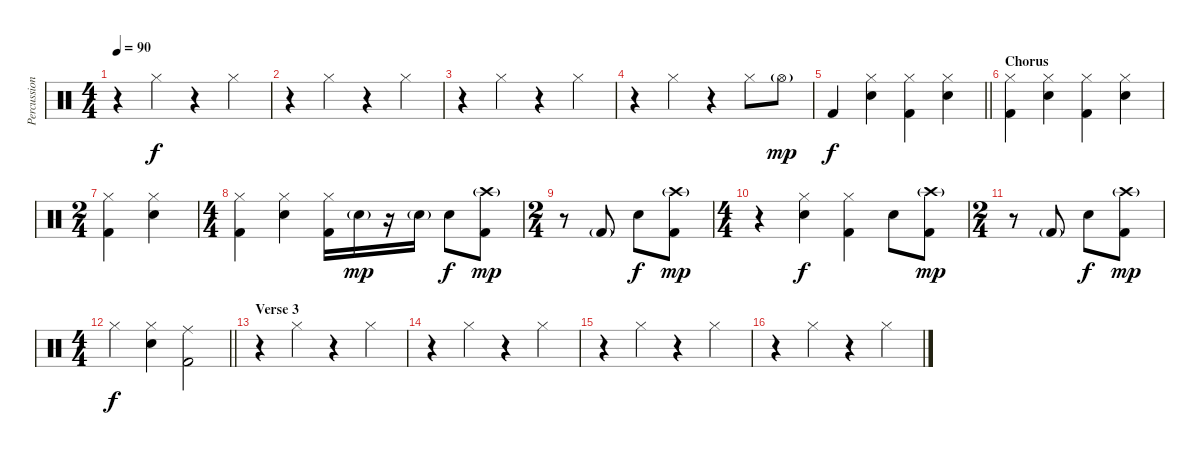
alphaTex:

\track ("Percussion" "Percussion") {instrument percussion}
\staff {score}
\articulation defaults
\ts (4 4)
\tempo 90
\clef neutral
\ks c
r.4{dy f} "Hi-Hat (closed)".4 r.4 "Hi-Hat (closed)".4 |
r.4 "Hi-Hat (closed)".4 r.4 "Hi-Hat (closed)".4 |
r.4 "Hi-Hat (closed)".4 r.4 "Hi-Hat (closed)".4 |
r.4 "Hi-Hat (closed)".4 r.4 "Hi-Hat (closed)".8 "Hi-Hat (open)"{g}.8{dy mp} |
\barLineRight lightlight "Kick (hit) 2".4{dy f volume 6}
("Hi-Hat (closed)" "Snare (hit) 2").4 ("Hi-Hat (closed)" "Kick (hit) 2").4 ("Hi-Hat (closed)" "Snare (hit) 2").4 |
\section ("" "Chorus")
("Hi-Hat (closed)" "Kick (hit) 2").4 ("Hi-Hat (closed)" "Snare (hit) 2").4 ("Hi-Hat (closed)" "Kick (hit) 2").4 ("Hi-Hat (closed)" "Snare (hit) 2").4 |
\ts (2 4)
("Hi-Hat (closed)" "Kick (hit) 2").4 ("Hi-Hat (closed)" "Snare (hit) 2").4 |
\ts (4 4)
("Hi-Hat (closed)" "Kick (hit) 2").4 ("Hi-Hat (closed)" "Snare (hit) 2").4 ("Hi-Hat (closed)" "Kick (hit) 2").16 "Snare (hit) 2"{g}.16{dy mp} r.16 "Snare (hit) 2"{g}.16 "Snare (hit) 2".8{dy f} ("Crash high (hit)"{g} "Kick (hit) 2").8{dy mp} |
\ts (2 4)
r.8 "Kick (hit) 2"{g}.8 "Snare (hit) 2".8{dy f} ("Crash high (hit)"{g} "Kick (hit) 2").8{dy mp} |
\ts (4 4)
r.4 ("Hi-Hat (closed)" "Snare (hit) 2").4{dy f} ("Hi-Hat (closed)" "Kick (hit) 2").4 "Snare (hit) 2".8 ("Crash high (hit)"{g} "Kick (hit) 2").8{dy mp} |
\ts (2 4)
r.8 "Kick (hit) 2"{g}.8 "Snare (hit) 2".8{dy f} ("Crash high (hit)"{g} "Kick (hit) 2").8{dy mp} |
\ts (4 4)
\barLineRight lightlight "Hi-Hat (closed)".4{dy f}
("Hi-Hat (closed)" "Snare (hit) 2").4 ("Ride (middle)" "Kick (hit) 2").2 |
\section ("" "Verse 3")
r.4{volume 13} "Hi-Hat (closed)".4 r.4 "Hi-Hat (closed)".4 |
r.4 "Hi-Hat (closed)".4 r.4 "Hi-Hat (closed)".4 |
r.4 "Hi-Hat (closed)".4 r.4 "Hi-Hat (closed)".4 |
r.4 "Hi-Hat (closed)".4 r.4 "Hi-Hat (closed)".4
